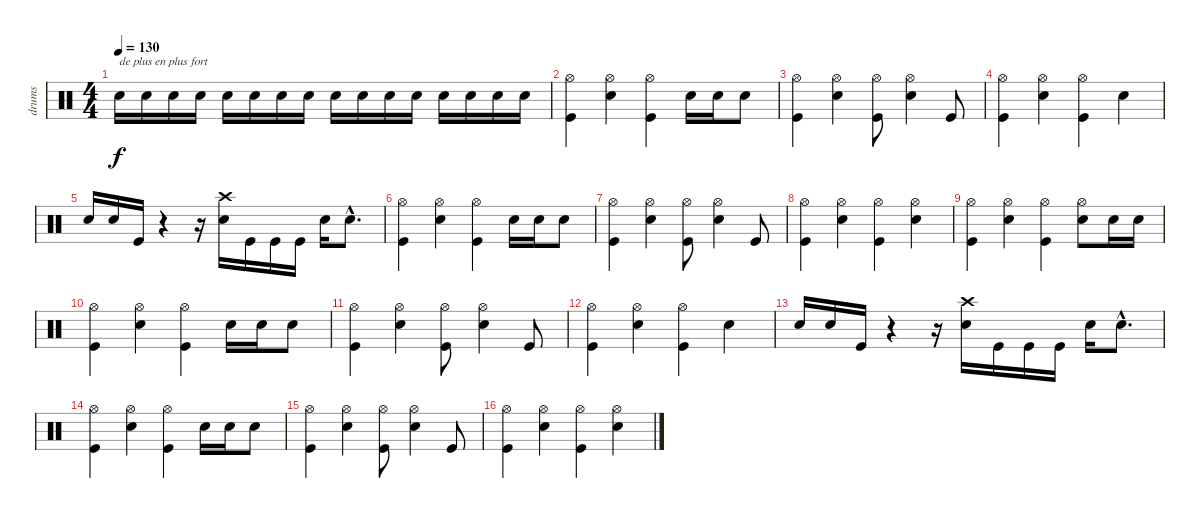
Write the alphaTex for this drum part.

\track ("drums" "drums") {instrument percussion}
\staff {score}
\articulation defaults
\ts (4 4)
\tempo 130
\clef neutral
\ks c "Snare (hit) 2".16{txt "de plus en plus fort" dy f} "Snare (hit) 2".16 "Snare (hit) 2".16 "Snare (hit) 2".16 "Snare (hit) 2".16 "Snare (hit) 2".16 "Snare (hit) 2".16 "Snare (hit) 2".16 "Snare (hit) 2".16 "Snare (hit) 2".16 "Snare (hit) 2".16 "Snare (hit) 2".16 "Snare (hit) 2".16 "Snare (hit) 2".16 "Snare (hit) 2".16 "Snare (hit) 2".16
|
("Kick (hit)" "Hi-Hat (open)").4 ("Snare (hit) 2" "Hi-Hat (open)").4 ("Kick (hit)" "Hi-Hat (open)").4 "Snare (hit) 2".16 "Snare (hit) 2".16 "Snare (hit) 2".8 |
("Hi-Hat (open)" "Kick (hit)").4 ("Hi-Hat (open)" "Snare (hit) 2").4 ("Hi-Hat (open)" "Kick (hit)").8 ("Hi-Hat (open)" "Snare (hit) 2").4 "Kick (hit)".8 |
("Hi-Hat (open)" "Kick (hit)").4 ("Hi-Hat (open)" "Snare (hit) 2").4 ("Hi-Hat (open)" "Kick (hit)").4 "Snare (hit) 2".4 |
"Snare (hit) 2".16 "Snare (hit) 2".16 "Kick (hit)".16 r.4 r.16 ("Crash high (hit)" "Snare (hit) 2").16 "Kick (hit)".16 "Kick (hit)".16 "Kick (hit)".16 "Snare (hit) 2".16 "Snare (hit) 2"{hac}.8{d} |
("Kick (hit)" "Hi-Hat (open)").4 ("Snare (hit) 2" "Hi-Hat (open)").4 ("Kick (hit)" "Hi-Hat (open)").4 "Snare (hit) 2".16 "Snare (hit) 2".16 "Snare (hit) 2".8 |
("Hi-Hat (open)" "Kick (hit)").4 ("Hi-Hat (open)" "Snare (hit) 2").4 ("Hi-Hat (open)" "Kick (hit)").8 ("Hi-Hat (open)" "Snare (hit) 2").4 "Kick (hit)".8 |
("Hi-Hat (open)" "Kick (hit)").4 ("Hi-Hat (open)" "Snare (hit) 2").4 ("Hi-Hat (open)" "Kick (hit)").4 ("Hi-Hat (open)" "Snare (hit) 2").4 |
("Hi-Hat (open)" "Kick (hit)").4 ("Hi-Hat (open)" "Snare (hit) 2").4 ("Hi-Hat (open)" "Kick (hit)").4 ("Hi-Hat (open)" "Snare (hit) 2").8 "Snare (hit) 2".16 "Snare (hit) 2".16 |
("Kick (hit)" "Hi-Hat (open)").4 ("Snare (hit) 2" "Hi-Hat (open)").4 ("Kick (hit)" "Hi-Hat (open)").4 "Snare (hit) 2".16 "Snare (hit) 2".16 "Snare (hit) 2".8 |
("Hi-Hat (open)" "Kick (hit)").4 ("Hi-Hat (open)" "Snare (hit) 2").4 ("Hi-Hat (open)" "Kick (hit)").8 ("Hi-Hat (open)" "Snare (hit) 2").4 "Kick (hit)".8 |
("Hi-Hat (open)" "Kick (hit)").4 ("Hi-Hat (open)" "Snare (hit) 2").4 ("Hi-Hat (open)" "Kick (hit)").4 "Snare (hit) 2".4 |
"Snare (hit) 2".16 "Snare (hit) 2".16 "Kick (hit)".16 r.4 r.16 ("Crash high (hit)" "Snare (hit) 2").16 "Kick (hit)".16 "Kick (hit)".16 "Kick (hit)".16 "Snare (hit) 2".16 "Snare (hit) 2"{hac}.8{d} |
("Kick (hit)" "Hi-Hat (open)").4 ("Snare (hit) 2" "Hi-Hat (open)").4 ("Kick (hit)" "Hi-Hat (open)").4 "Snare (hit) 2".16 "Snare (hit) 2".16 "Snare (hit) 2".8 |
("Hi-Hat (open)" "Kick (hit)").4 ("Hi-Hat (open)" "Snare (hit) 2").4 ("Hi-Hat (open)" "Kick (hit)").8 ("Hi-Hat (open)" "Snare (hit) 2").4 "Kick (hit)".8 |
("Hi-Hat (open)" "Kick (hit)").4 ("Hi-Hat (open)" "Snare (hit) 2").4 ("Hi-Hat (open)" "Kick (hit)").4 ("Hi-Hat (open)" "Snare (hit) 2").4
